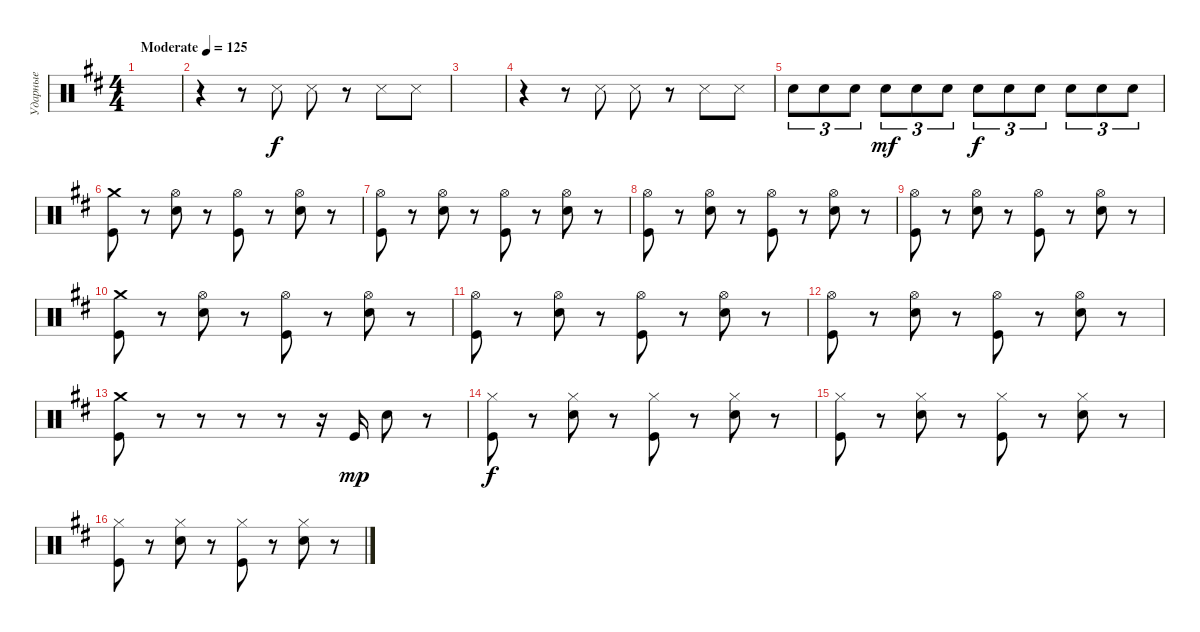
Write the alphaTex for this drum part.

\track ("Ударные" "Ударные") {instrument percussion}
\staff {score}
\articulation defaults
\ts (4 4)
\tempo (125 "Moderate")
\clef neutral
\ks d
|
r.4 r.8 "Metronome (hit)".8 "Metronome (hit)".8 r.8 "Metronome (hit)".8 "Metronome (hit)".8 |
|
r.4 r.8 "Metronome (hit)".8 "Metronome (hit)".8 r.8 "Metronome (hit)".8 "Metronome (hit)".8 |
"Electric Snare (hit)".8{tu (3 2)} "Electric Snare (hit)".8{tu (3 2)} "Electric Snare (hit)".8{tu (3 2)} "Electric Snare (hit)".8{tu (3 2) dy mf} "Electric Snare (hit)".8{tu (3 2)} "Electric Snare (hit)".8{tu (3 2)} "Electric Snare (hit)".8{tu (3 2) dy f} "Electric Snare (hit)".8{tu (3 2)} "Electric Snare (hit)".8{tu (3 2)} "Electric Snare (hit)".8{tu (3 2)} "Electric Snare (hit)".8{tu (3 2)} "Electric Snare (hit)".8{tu (3 2)} |
("Crash medium (hit)" "Kick (hit)").8 r.8 ("Hi-Hat (open)" "Electric Snare (hit)").8 r.8 ("Hi-Hat (open)" "Kick (hit)").8 r.8 ("Hi-Hat (open)" "Electric Snare (hit)").8 r.8 |
("Hi-Hat (open)" "Kick (hit)").8 r.8 ("Hi-Hat (open)" "Electric Snare (hit)").8 r.8 ("Hi-Hat (open)" "Kick (hit)").8 r.8 ("Hi-Hat (open)" "Electric Snare (hit)").8 r.8 |
("Hi-Hat (open)" "Kick (hit)").8 r.8 ("Hi-Hat (open)" "Electric Snare (hit)").8 r.8 ("Hi-Hat (open)" "Kick (hit)").8 r.8 ("Hi-Hat (open)" "Electric Snare (hit)").8 r.8 |
("Hi-Hat (open)" "Kick (hit)").8 r.8 ("Hi-Hat (open)" "Electric Snare (hit)").8 r.8 ("Hi-Hat (open)" "Kick (hit)").8 r.8 ("Hi-Hat (open)" "Electric Snare (hit)").8 r.8 |
("Crash medium (hit)" "Kick (hit)").8 r.8 ("Hi-Hat (open)" "Electric Snare (hit)").8 r.8 ("Hi-Hat (open)" "Kick (hit)").8 r.8 ("Hi-Hat (open)" "Electric Snare (hit)").8 r.8 |
("Hi-Hat (open)" "Kick (hit)").8 r.8 ("Hi-Hat (open)" "Electric Snare (hit)").8 r.8 ("Hi-Hat (open)" "Kick (hit)").8 r.8 ("Hi-Hat (open)" "Electric Snare (hit)").8 r.8 |
("Hi-Hat (open)" "Kick (hit)").8 r.8 ("Hi-Hat (open)" "Electric Snare (hit)").8 r.8 ("Hi-Hat (open)" "Kick (hit)").8 r.8 ("Hi-Hat (open)" "Electric Snare (hit)").8 r.8 |
("Crash medium (hit)" "Kick (hit)").8 r.8 r.8 r.8 r.8 r.16 "Kick (hit)".16{dy mp} "Electric Snare (hit)".8 r.8 |
("Hi-Hat (closed)" "Kick (hit)").8{dy f} r.8 ("Hi-Hat (closed)" "Electric Snare (hit)").8 r.8 ("Hi-Hat (closed)" "Kick (hit)").8 r.8 ("Hi-Hat (closed)" "Electric Snare (hit)").8 r.8 |
("Hi-Hat (closed)" "Kick (hit)").8 r.8 ("Hi-Hat (closed)" "Electric Snare (hit)").8 r.8 ("Hi-Hat (closed)" "Kick (hit)").8 r.8 ("Hi-Hat (closed)" "Electric Snare (hit)").8 r.8 |
("Hi-Hat (closed)" "Kick (hit)").8 r.8 ("Hi-Hat (closed)" "Electric Snare (hit)").8 r.8 ("Hi-Hat (closed)" "Kick (hit)").8 r.8 ("Hi-Hat (closed)" "Electric Snare (hit)").8 r.8
